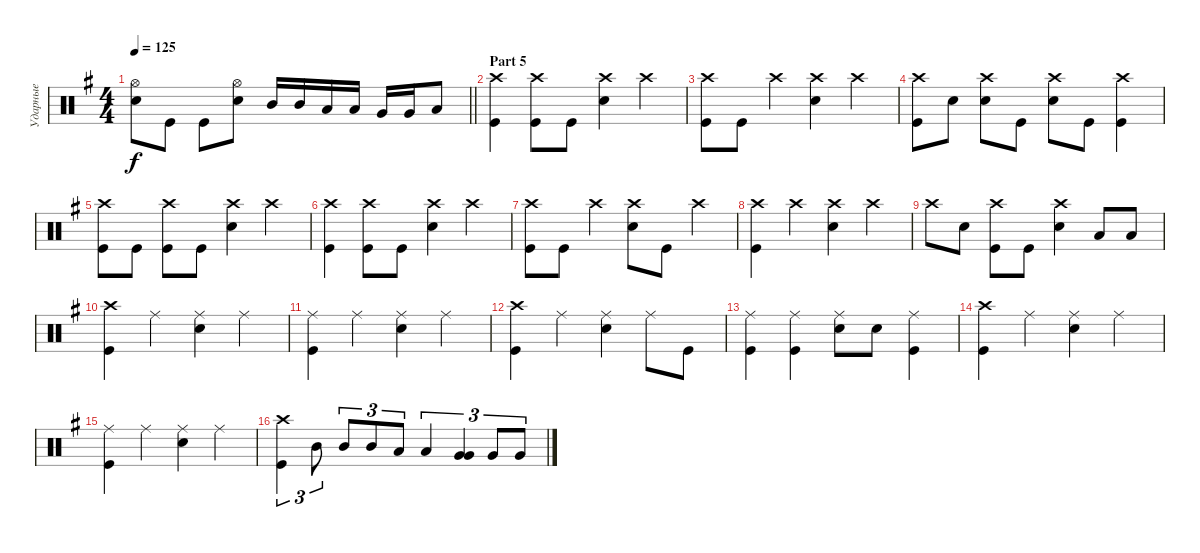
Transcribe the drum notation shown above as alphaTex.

\track ("Ударные" "Ударные") {instrument percussion}
\staff {score}
\articulation defaults
\ts (4 4)
\tempo 125
\clef neutral
\barLineRight lightlight
\ks eminor
("Snare (hit) 2" "Hi-Hat (open)").8{dy f} "Kick (hit)".8 "Kick (hit)".8 ("Snare (hit) 2" "Hi-Hat (open)").8 "Mid Tom (hit)".16 "Mid Tom (hit)".16 "Low Tom (hit)".16 "Low Tom (hit)".16 "Very Low Tom (hit)".16 "Very Low Tom (hit)".16 "Low Floor Tom (hit)".8 |
\section ("" "Part 5")
("Kick (hit)" "Crash high (hit)").4 ("Kick (hit)" "Crash high (hit)").8 "Kick (hit)".8 ("Snare (hit) 2" "Crash high (hit)").4 "Crash high (hit)".4 |
("Kick (hit)" "Crash high (hit)").8 "Kick (hit)".8 "Crash high (hit)".4 ("Crash high (hit)" "Snare (hit) 2").4 "Crash high (hit)".4 |
("Crash high (hit)" "Kick (hit)").8 "Snare (hit) 2".8 ("Snare (hit) 2" "Crash high (hit)").8 "Kick (hit)".8 ("Snare (hit) 2" "Crash high (hit)").8 "Kick (hit)".8 ("Kick (hit)" "Crash high (hit)").4 |
("Kick (hit)" "Crash high (hit)").8 "Kick (hit)".8 ("Kick (hit)" "Crash high (hit)").8 "Kick (hit)".8 ("Snare (hit) 2" "Crash high (hit)").4 "Crash high (hit)".4 |
("Kick (hit)" "Crash high (hit)").4 ("Kick (hit)" "Crash high (hit)").8 "Kick (hit)".8 ("Snare (hit) 2" "Crash high (hit)").4 "Crash high (hit)".4 |
("Kick (hit)" "Crash high (hit)").8 "Kick (hit)".8 "Crash high (hit)".4 ("Crash high (hit)" "Snare (hit) 2").8 "Kick (hit)".8 "Crash high (hit)".4 |
("Kick (hit)" "Crash high (hit)").4 "Crash high (hit)".4 ("Crash high (hit)" "Snare (hit) 2").4 "Crash high (hit)".4 |
"Crash high (hit)".8 "Snare (hit) 2".8 ("Kick (hit)" "Crash high (hit)").8 "Kick (hit)".8 ("Snare (hit) 2" "Crash high (hit)").4 "Low Tom (hit)".8 "Low Tom (hit)".8 |
("Kick (hit)" "Crash high (hit)").4 "Ride (middle)".4 ("Snare (hit) 2" "Ride (middle)").4 "Ride (middle)".4 |
("Kick (hit)" "Ride (middle)").4 "Ride (middle)".4 ("Snare (hit) 2" "Ride (middle)").4 "Ride (middle)".4 |
("Kick (hit)" "Crash high (hit)").4 "Ride (middle)".4 ("Snare (hit) 2" "Ride (middle)").4 "Ride (middle)".8 "Kick (hit)".8 |
("Kick (hit)" "Ride (middle)").4 ("Kick (hit)" "Ride (middle)").4 ("Snare (hit) 2" "Ride (middle)").8 "Snare (hit) 2".8 ("Kick (hit)" "Ride (middle)").4 |
("Kick (hit)" "Crash high (hit)").4 "Ride (middle)".4 ("Snare (hit) 2" "Ride (middle)").4 "Ride (middle)".4 |
("Kick (hit)" "Ride (middle)").4 "Ride (middle)".4 ("Snare (hit) 2" "Ride (middle)").4 "Ride (middle)".4 |
("Kick (hit)" "Crash high (hit)").4{tu (3 2)} "Mid Tom (hit)".8{tu (3 2)} "Mid Tom (hit)".8{tu (3 2)} "Mid Tom (hit)".8{tu (3 2)} "Low Tom (hit)".8{tu (3 2)} "Low Tom (hit)".4{tu (3 2)} ("Very Low Tom (hit)" "Very Low Tom (hit)").4{tu (3 2) bd 120} "Very Low Tom (hit)".8{tu (3 2)} "Very Low Tom (hit)".8{tu (3 2)}
